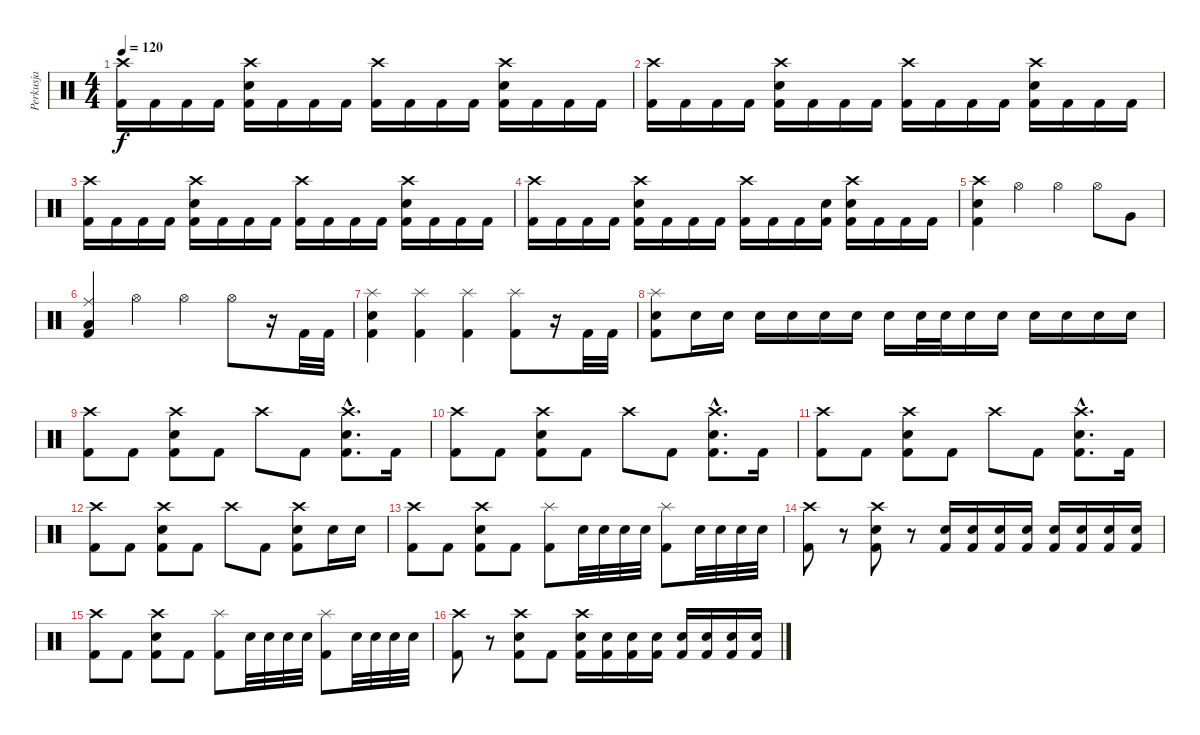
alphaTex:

\track ("Perkusja" "Perkusja") {instrument percussion}
\staff {score}
\articulation defaults
\ts (4 4)
\tempo 120
\clef neutral
\ks c
("Crash high (hit)" "Kick (hit) 2").16{dy f} "Kick (hit) 2".16 "Kick (hit) 2".16 "Kick (hit) 2".16 ("Crash high (hit)" "Electric Snare (hit)" "Kick (hit) 2").16 "Kick (hit) 2".16 "Kick (hit) 2".16 "Kick (hit) 2".16 ("Crash high (hit)" "Kick (hit) 2").16 "Kick (hit) 2".16 "Kick (hit) 2".16 "Kick (hit) 2".16 ("Crash high (hit)" "Electric Snare (hit)" "Kick (hit) 2").16 "Kick (hit) 2".16 "Kick (hit) 2".16 "Kick (hit) 2".16 |
("Crash high (hit)" "Kick (hit) 2").16 "Kick (hit) 2".16 "Kick (hit) 2".16 "Kick (hit) 2".16 ("Crash high (hit)" "Electric Snare (hit)" "Kick (hit) 2").16 "Kick (hit) 2".16 "Kick (hit) 2".16 "Kick (hit) 2".16 ("Crash high (hit)" "Kick (hit) 2").16 "Kick (hit) 2".16 "Kick (hit) 2".16 "Kick (hit) 2".16 ("Crash high (hit)" "Electric Snare (hit)" "Kick (hit) 2").16 "Kick (hit) 2".16 "Kick (hit) 2".16 "Kick (hit) 2".16 |
("Crash high (hit)" "Kick (hit) 2").16 "Kick (hit) 2".16 "Kick (hit) 2".16 "Kick (hit) 2".16 ("Crash high (hit)" "Electric Snare (hit)" "Kick (hit) 2").16 "Kick (hit) 2".16 "Kick (hit) 2".16 "Kick (hit) 2".16 ("Crash high (hit)" "Kick (hit) 2").16 "Kick (hit) 2".16 "Kick (hit) 2".16 "Kick (hit) 2".16 ("Crash high (hit)" "Electric Snare (hit)" "Kick (hit) 2").16 "Kick (hit) 2".16 "Kick (hit) 2".16 "Kick (hit) 2".16 |
("Crash high (hit)" "Kick (hit) 2").16 "Kick (hit) 2".16 "Kick (hit) 2".16 "Kick (hit) 2".16 ("Crash high (hit)" "Electric Snare (hit)" "Kick (hit) 2").16 "Kick (hit) 2".16 "Kick (hit) 2".16 "Kick (hit) 2".16 ("Crash high (hit)" "Kick (hit) 2").16 "Kick (hit) 2".16 "Kick (hit) 2".16 ("Electric Snare (hit)" "Kick (hit) 2").16 ("Crash high (hit)" "Electric Snare (hit)" "Kick (hit) 2").16 "Kick (hit) 2".16 "Kick (hit) 2".16 "Kick (hit) 2".16 |
("Crash high (hit)" "Electric Snare (hit)" "Kick (hit) 2").4 "Hi-Hat (open)".4 "Hi-Hat (open)".4 "Hi-Hat (open)".8 "Very Low Tom (hit)".8 |
("Ride (middle)" "Low Floor Tom (hit)" "Kick (hit) 2").4 "Hi-Hat (open)".4 "Hi-Hat (open)".4 "Hi-Hat (open)".8 r.16 "Kick (hit) 2".32 "Kick (hit) 2".32 |
("Splash (hit)" "Electric Snare (hit)" "Kick (hit) 2").4 ("Splash (hit)" "Kick (hit) 2").4 ("Splash (hit)" "Kick (hit) 2").4 ("Splash (hit)" "Kick (hit) 2").8 r.16 "Kick (hit) 2".32 "Kick (hit) 2".32 |
("Splash (hit)" "Electric Snare (hit)" "Kick (hit) 2").8 "Electric Snare (hit)".16 "Electric Snare (hit)".16 "Electric Snare (hit)".16 "Electric Snare (hit)".16 "Electric Snare (hit)".16 "Electric Snare (hit)".16 "Electric Snare (hit)".16 "Electric Snare (hit)".32 "Electric Snare (hit)".32 "Electric Snare (hit)".16 "Electric Snare (hit)".16 "Electric Snare (hit)".16 "Electric Snare (hit)".16 "Electric Snare (hit)".16 "Electric Snare (hit)".16 |
("Crash high (hit)" "Kick (hit) 2").8 "Kick (hit) 2".8 ("Crash high (hit)" "Electric Snare (hit)" "Kick (hit) 2").8 "Kick (hit) 2".8 "Crash high (hit)".8 "Kick (hit) 2".8 ("Crash high (hit)"{hac} "Electric Snare (hit)"{hac} "Kick (hit) 2"{hac}).8{d} "Kick (hit) 2".16 |
("Crash high (hit)" "Kick (hit) 2").8 "Kick (hit) 2".8 ("Crash high (hit)" "Electric Snare (hit)" "Kick (hit) 2").8 "Kick (hit) 2".8 "Crash high (hit)".8 "Kick (hit) 2".8 ("Crash high (hit)"{hac} "Electric Snare (hit)"{hac} "Kick (hit) 2"{hac}).8{d} "Kick (hit) 2".16 |
("Crash high (hit)" "Kick (hit) 2").8 "Kick (hit) 2".8 ("Crash high (hit)" "Electric Snare (hit)" "Kick (hit) 2").8 "Kick (hit) 2".8 "Crash high (hit)".8 "Kick (hit) 2".8 ("Crash high (hit)"{hac} "Electric Snare (hit)"{hac} "Kick (hit) 2"{hac}).8{d} "Kick (hit) 2".16 |
("Crash high (hit)" "Kick (hit) 2").8 "Kick (hit) 2".8 ("Crash high (hit)" "Electric Snare (hit)" "Kick (hit) 2").8 "Kick (hit) 2".8 "Crash high (hit)".8 "Kick (hit) 2".8 ("Crash high (hit)" "Electric Snare (hit)" "Kick (hit) 2").8 "Electric Snare (hit)".16 "Electric Snare (hit)".16 |
("Crash high (hit)" "Kick (hit) 2").8 "Kick (hit) 2".8 ("Crash high (hit)" "Electric Snare (hit)" "Kick (hit) 2").8 "Kick (hit) 2".8 ("Splash (hit)" "Kick (hit) 2").8 "Electric Snare (hit)".32 "Electric Snare (hit)".32 "Electric Snare (hit)".32 "Electric Snare (hit)".32 ("Splash (hit)" "Kick (hit) 2").8 "Electric Snare (hit)".32 "Electric Snare (hit)".32 "Electric Snare (hit)".32 "Electric Snare (hit)".32 |
("Crash high (hit)" "Kick (hit) 2").8 r.8 ("Crash high (hit)" "Electric Snare (hit)" "Kick (hit) 2").8 r.8 ("Electric Snare (hit)" "Kick (hit) 2").16 ("Electric Snare (hit)" "Kick (hit) 2").16 ("Electric Snare (hit)" "Kick (hit) 2").16 ("Electric Snare (hit)" "Kick (hit) 2").16 ("Electric Snare (hit)" "Kick (hit) 2").16 ("Electric Snare (hit)" "Kick (hit) 2").16 ("Electric Snare (hit)" "Kick (hit) 2").16 ("Electric Snare (hit)" "Kick (hit) 2").16 |
("Crash high (hit)" "Kick (hit) 2").8 "Kick (hit) 2".8 ("Crash high (hit)" "Electric Snare (hit)" "Kick (hit) 2").8 "Kick (hit) 2".8 ("Splash (hit)" "Kick (hit) 2").8 "Electric Snare (hit)".32 "Electric Snare (hit)".32 "Electric Snare (hit)".32 "Electric Snare (hit)".32 ("Splash (hit)" "Kick (hit) 2").8 "Electric Snare (hit)".32 "Electric Snare (hit)".32 "Electric Snare (hit)".32 "Electric Snare (hit)".32 |
("Crash high (hit)" "Kick (hit) 2").8 r.8 ("Crash high (hit)" "Electric Snare (hit)" "Kick (hit) 2").8 "Kick (hit) 2".8 ("Crash high (hit)" "Electric Snare (hit)" "Kick (hit) 2").16 ("Electric Snare (hit)" "Kick (hit) 2").16 ("Electric Snare (hit)" "Kick (hit) 2").16 ("Electric Snare (hit)" "Kick (hit) 2").16 ("Electric Snare (hit)" "Kick (hit) 2").16 ("Electric Snare (hit)" "Kick (hit) 2").16 ("Electric Snare (hit)" "Kick (hit) 2").16 ("Electric Snare (hit)" "Kick (hit) 2").16
